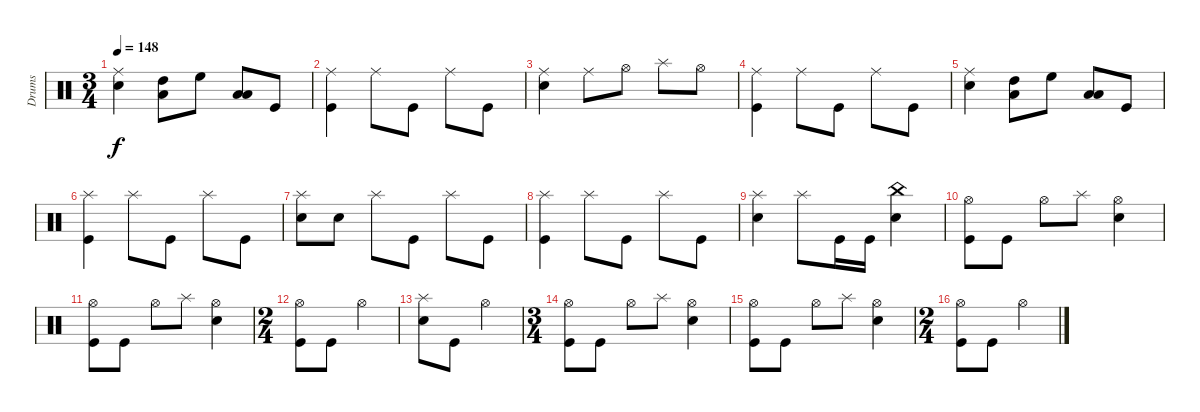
\track ("Drums" "Drums") {instrument percussion}
\staff {score}
\articulation defaults
\ts (3 4)
\tempo 148
\clef neutral
\ks c
("Ride (middle)" "Snare (hit) 2").4{dy f} ("Low Floor Tom (hit)" "High Tom (hit)").8 "High Floor Tom (hit)".8 ("Low Floor Tom (hit)" "Low Tom (hit)").8 "Kick (hit)".8 |
("Ride (middle)" "Kick (hit)").4 "Ride (middle)".8 "Kick (hit)".8 "Ride (middle)".8 "Kick (hit)".8 |
("Ride (middle)" "Snare (hit) 2").4 "Ride (middle)".8 "Hi-Hat (open)".8 "Splash (hit)".8 "Hi-Hat (open)".8 |
("Ride (middle)" "Kick (hit)").4 "Ride (middle)".8 "Kick (hit)".8 "Ride (middle)".8 "Kick (hit)".8 |
("Ride (middle)" "Snare (hit) 2").4 ("Low Floor Tom (hit)" "High Tom (hit)").8 "High Floor Tom (hit)".8 ("Low Floor Tom (hit)" "Low Tom (hit)").8 "Kick (hit)".8 |
("Splash (hit)" "Kick (hit)").4 "Splash (hit)".8 "Kick (hit)".8 "Splash (hit)".8 "Kick (hit)".8 |
("Splash (hit)" "Snare (hit) 2").8 "Snare (hit) 2".8 "Splash (hit)".8 "Kick (hit)".8 "Splash (hit)".8 "Kick (hit)".8 |
("Splash (hit)" "Kick (hit)").4 "Splash (hit)".8 "Kick (hit)".8 "Splash (hit)".8 "Kick (hit)".8 |
("Splash (hit)" "Snare (hit) 2").4 "Splash (hit)".8 "Kick (hit)".16 "Kick (hit)".16 ("China (hit)" "Snare (hit) 2").4 |
("Hi-Hat (open)" "Kick (hit)").8 "Kick (hit)".8 "Hi-Hat (open)".8 "Splash (hit)".8 ("Hi-Hat (open)" "Snare (hit) 2").4 |
("Hi-Hat (open)" "Kick (hit)").8 "Kick (hit)".8 "Hi-Hat (open)".8 "Splash (hit)".8 ("Hi-Hat (open)" "Snare (hit) 2").4 |
\ts (2 4)
("Hi-Hat (open)" "Kick (hit)").8 "Kick (hit)".8 "Hi-Hat (open)".4 |
("Splash (hit)" "Snare (hit) 2").8 "Kick (hit)".8 "Hi-Hat (open)".4 |
\ts (3 4)
("Hi-Hat (open)" "Kick (hit)").8 "Kick (hit)".8 "Hi-Hat (open)".8 "Splash (hit)".8 ("Hi-Hat (open)" "Snare (hit) 2").4 |
("Hi-Hat (open)" "Kick (hit)").8 "Kick (hit)".8 "Hi-Hat (open)".8 "Splash (hit)".8 ("Hi-Hat (open)" "Snare (hit) 2").4 |
\ts (2 4)
("Hi-Hat (open)" "Kick (hit)").8 "Kick (hit)".8 "Hi-Hat (open)".4
